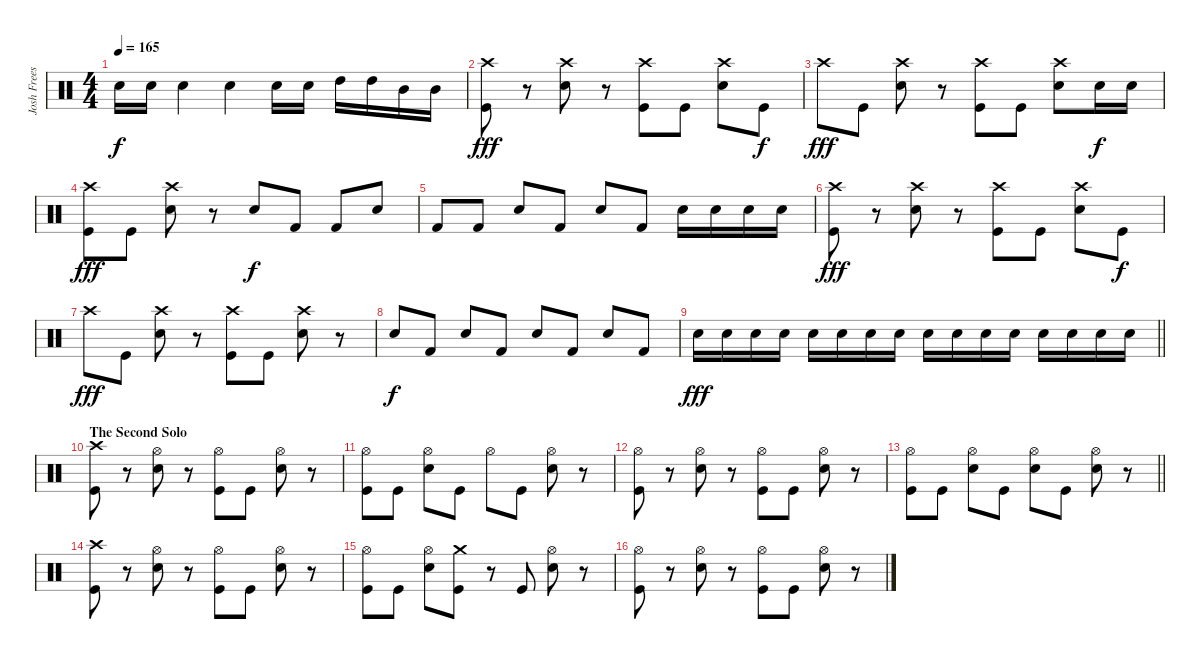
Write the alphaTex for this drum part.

\track ("Josh Freese" "Josh Frees") {instrument percussion}
\staff {score}
\articulation defaults
\ts (4 4)
\tempo 165
\clef neutral
\ks c "Electric Snare (hit)".16{dy f} "Electric Snare (hit)".16 "Electric Snare (hit)".4 "Electric Snare (hit)".4 "Electric Snare (hit)".16 "Electric Snare (hit)".16 "High Tom (hit)".16 "High Tom (hit)".16 "Mid Tom (hit)".16 "Mid Tom (hit)".16
|
("Crash high (hit)" "Kick (hit)").8{dy fff} r.8 ("Crash high (hit)" "Electric Snare (hit)").8 r.8 ("Crash high (hit)" "Kick (hit)").8 "Kick (hit)".8 ("Crash high (hit)" "Electric Snare (hit)").8 "Kick (hit)".8{dy f} |
"Crash high (hit)".8{dy fff} "Kick (hit)".8 ("Crash high (hit)" "Electric Snare (hit)").8 r.8 ("Crash high (hit)" "Kick (hit)").8 "Kick (hit)".8 ("Crash high (hit)" "Electric Snare (hit)").8 "Electric Snare (hit)".16{dy f} "Electric Snare (hit)".16 |
("Crash high (hit)" "Kick (hit)").8{dy fff} "Kick (hit)".8 ("Crash high (hit)" "Electric Snare (hit)").8 r.8 "Electric Snare (hit)".8{dy f} "Kick (hit) 2".8 "Kick (hit) 2".8 "Electric Snare (hit)".8 |
"Kick (hit) 2".8 "Kick (hit) 2".8 "Electric Snare (hit)".8 "Kick (hit) 2".8 "Electric Snare (hit)".8 "Kick (hit) 2".8 "Electric Snare (hit)".16 "Electric Snare (hit)".16 "Electric Snare (hit)".16 "Electric Snare (hit)".16 |
("Crash high (hit)" "Kick (hit)").8{dy fff} r.8 ("Crash high (hit)" "Electric Snare (hit)").8 r.8 ("Crash high (hit)" "Kick (hit)").8 "Kick (hit)".8 ("Crash high (hit)" "Electric Snare (hit)").8 "Kick (hit)".8{dy f} |
"Crash high (hit)".8{dy fff} "Kick (hit)".8 ("Crash high (hit)" "Electric Snare (hit)").8 r.8 ("Crash high (hit)" "Kick (hit)").8 "Kick (hit)".8 ("Crash high (hit)" "Electric Snare (hit)").8 r.8 |
"Electric Snare (hit)".8{dy f} "Kick (hit) 2".8 "Electric Snare (hit)".8 "Kick (hit) 2".8 "Electric Snare (hit)".8 "Kick (hit) 2".8 "Electric Snare (hit)".8 "Kick (hit) 2".8 |
\barLineRight lightlight "Electric Snare (hit)".16{dy fff} "Electric Snare (hit)".16 "Electric Snare (hit)".16 "Electric Snare (hit)".16 "Electric Snare (hit)".16 "Electric Snare (hit)".16 "Electric Snare (hit)".16 "Electric Snare (hit)".16 "Electric Snare (hit)".16 "Electric Snare (hit)".16 "Electric Snare (hit)".16 "Electric Snare (hit)".16 "Electric Snare (hit)".16 "Electric Snare (hit)".16 "Electric Snare (hit)".16 "Electric Snare (hit)".16
|
\section ("" "The Second Solo")
("Crash high (hit)" "Kick (hit)").8 r.8 ("Hi-Hat (open)" "Electric Snare (hit)").8 r.8 ("Hi-Hat (open)" "Kick (hit)").8 "Kick (hit)".8 ("Hi-Hat (open)" "Electric Snare (hit)").8 r.8 |
("Hi-Hat (open)" "Kick (hit)").8 "Kick (hit)".8 ("Hi-Hat (open)" "Electric Snare (hit)").8 "Kick (hit)".8 "Hi-Hat (open)".8 "Kick (hit)".8 ("Hi-Hat (open)" "Electric Snare (hit)").8 r.8 |
("Hi-Hat (open)" "Kick (hit)").8 r.8 ("Hi-Hat (open)" "Electric Snare (hit)").8 r.8 ("Hi-Hat (open)" "Kick (hit)").8 "Kick (hit)".8 ("Hi-Hat (open)" "Electric Snare (hit)").8 r.8 |
\barLineRight lightlight
("Hi-Hat (open)" "Kick (hit)").8 "Kick (hit)".8 ("Hi-Hat (open)" "Electric Snare (hit)").8 "Kick (hit)".8 ("Hi-Hat (open)" "Electric Snare (hit)").8 "Kick (hit)".8 ("Hi-Hat (open)" "Electric Snare (hit)").8 r.8 |
("Crash high (hit)" "Kick (hit)").8 r.8 ("Hi-Hat (open)" "Electric Snare (hit)").8 r.8 ("Hi-Hat (open)" "Kick (hit)").8 "Kick (hit)".8 ("Hi-Hat (open)" "Electric Snare (hit)").8 r.8 |
("Hi-Hat (open)" "Kick (hit)").8 "Kick (hit)".8 ("Hi-Hat (open)" "Electric Snare (hit)").8 ("Crash medium (hit)" "Kick (hit)").8 r.8 "Kick (hit)".8 ("Hi-Hat (open)" "Electric Snare (hit)").8 r.8 |
("Hi-Hat (open)" "Kick (hit)").8 r.8 ("Hi-Hat (open)" "Electric Snare (hit)").8 r.8 ("Hi-Hat (open)" "Kick (hit)").8 "Kick (hit)".8 ("Hi-Hat (open)" "Electric Snare (hit)").8 r.8
